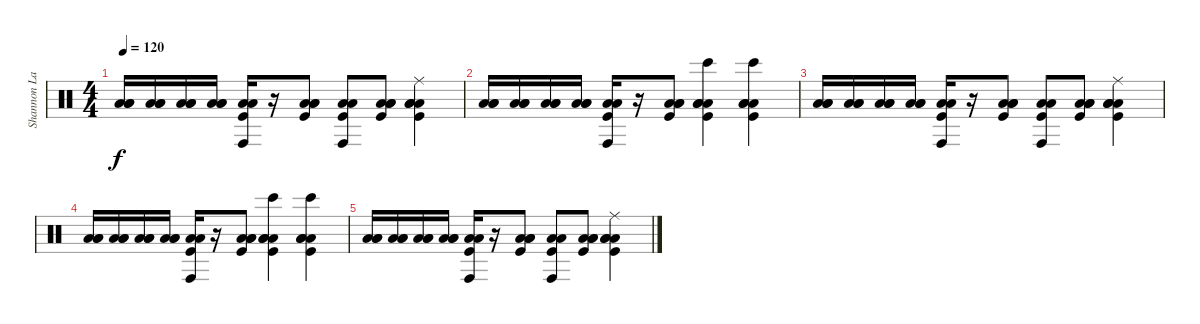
\track ("Shannon Larkin" "Shannon La") {instrument percussion}
\staff {score}
\articulation defaults
\ts (4 4)
\tempo 120
\clef neutral
\ks c
("Low Floor Tom (hit)" "Low Floor Tom (hit)" "Low Tom (hit)").16{dy f} ("Low Floor Tom (hit)" "Low Floor Tom (hit)" "Low Tom (hit)").16 ("Low Floor Tom (hit)" "Low Floor Tom (hit)" "Low Tom (hit)").16 ("Low Floor Tom (hit)" "Low Floor Tom (hit)" "Low Tom (hit)").16 ("Low Floor Tom (hit)" "Low Floor Tom (hit)" "Conga high (hit)" "Kick (hit)").16 r.16 ("Low Floor Tom (hit)" "Low Floor Tom (hit)" "Low Tom (hit)" "Kick (hit)").8 ("Low Floor Tom (hit)" "Low Floor Tom (hit)" "Conga high (hit)" "Kick (hit)").8 ("Low Floor Tom (hit)" "Low Floor Tom (hit)" "Low Tom (hit)" "Kick (hit)").8 ("Low Floor Tom (hit)" "Low Tom (hit)" "Low Floor Tom (hit)" "Ride (middle)" "Kick (hit)").4 |
("Low Floor Tom (hit)" "Low Floor Tom (hit)" "Low Tom (hit)").16 ("Low Floor Tom (hit)" "Low Floor Tom (hit)" "Low Tom (hit)").16 ("Low Floor Tom (hit)" "Low Floor Tom (hit)" "Low Tom (hit)").16 ("Low Floor Tom (hit)" "Low Floor Tom (hit)" "Low Tom (hit)").16 ("Low Floor Tom (hit)" "Low Floor Tom (hit)" "Conga high (hit)" "Kick (hit)").16 r.16 ("Low Floor Tom (hit)" "Low Floor Tom (hit)" "Low Tom (hit)" "Kick (hit)").8 ("Low Floor Tom (hit)" "Low Tom (hit)" "Low Floor Tom (hit)" "Bongo High (hit)" "Kick (hit)").4 ("Low Floor Tom (hit)" "Low Tom (hit)" "Low Floor Tom (hit)" "Bongo High (hit)" "Kick (hit)").4 |
("Low Floor Tom (hit)" "Low Floor Tom (hit)" "Low Tom (hit)").16 ("Low Floor Tom (hit)" "Low Floor Tom (hit)" "Low Tom (hit)").16 ("Low Floor Tom (hit)" "Low Floor Tom (hit)" "Low Tom (hit)").16 ("Low Floor Tom (hit)" "Low Floor Tom (hit)" "Low Tom (hit)").16 ("Low Floor Tom (hit)" "Low Floor Tom (hit)" "Conga high (hit)" "Kick (hit)").16 r.16 ("Low Floor Tom (hit)" "Low Floor Tom (hit)" "Low Tom (hit)" "Kick (hit)").8 ("Low Floor Tom (hit)" "Low Floor Tom (hit)" "Conga high (hit)" "Kick (hit)").8 ("Low Floor Tom (hit)" "Low Floor Tom (hit)" "Low Tom (hit)" "Kick (hit)").8 ("Low Floor Tom (hit)" "Low Tom (hit)" "Low Floor Tom (hit)" "Ride (middle)" "Kick (hit)").4 |
("Low Floor Tom (hit)" "Low Floor Tom (hit)" "Low Tom (hit)").16 ("Low Floor Tom (hit)" "Low Floor Tom (hit)" "Low Tom (hit)").16 ("Low Floor Tom (hit)" "Low Floor Tom (hit)" "Low Tom (hit)").16 ("Low Floor Tom (hit)" "Low Floor Tom (hit)" "Low Tom (hit)").16 ("Low Floor Tom (hit)" "Low Floor Tom (hit)" "Conga high (hit)" "Kick (hit)").16 r.16 ("Low Floor Tom (hit)" "Low Floor Tom (hit)" "Low Tom (hit)" "Kick (hit)").8 ("Low Floor Tom (hit)" "Low Tom (hit)" "Low Floor Tom (hit)" "Bongo High (hit)" "Kick (hit)").4 ("Low Floor Tom (hit)" "Low Tom (hit)" "Low Floor Tom (hit)" "Bongo High (hit)" "Kick (hit)").4 |
("Low Floor Tom (hit)" "Low Floor Tom (hit)" "Low Tom (hit)").16 ("Low Floor Tom (hit)" "Low Floor Tom (hit)" "Low Tom (hit)").16 ("Low Floor Tom (hit)" "Low Floor Tom (hit)" "Low Tom (hit)").16 ("Low Floor Tom (hit)" "Low Floor Tom (hit)" "Low Tom (hit)").16 ("Low Floor Tom (hit)" "Low Floor Tom (hit)" "Conga high (hit)" "Kick (hit)").16 r.16 ("Low Floor Tom (hit)" "Low Floor Tom (hit)" "Low Tom (hit)" "Kick (hit)").8 ("Low Floor Tom (hit)" "Low Floor Tom (hit)" "Conga high (hit)" "Kick (hit)").8 ("Low Floor Tom (hit)" "Low Floor Tom (hit)" "Low Tom (hit)" "Kick (hit)").8 ("Low Floor Tom (hit)" "Low Tom (hit)" "Low Floor Tom (hit)" "Ride (middle)" "Kick (hit)").4
